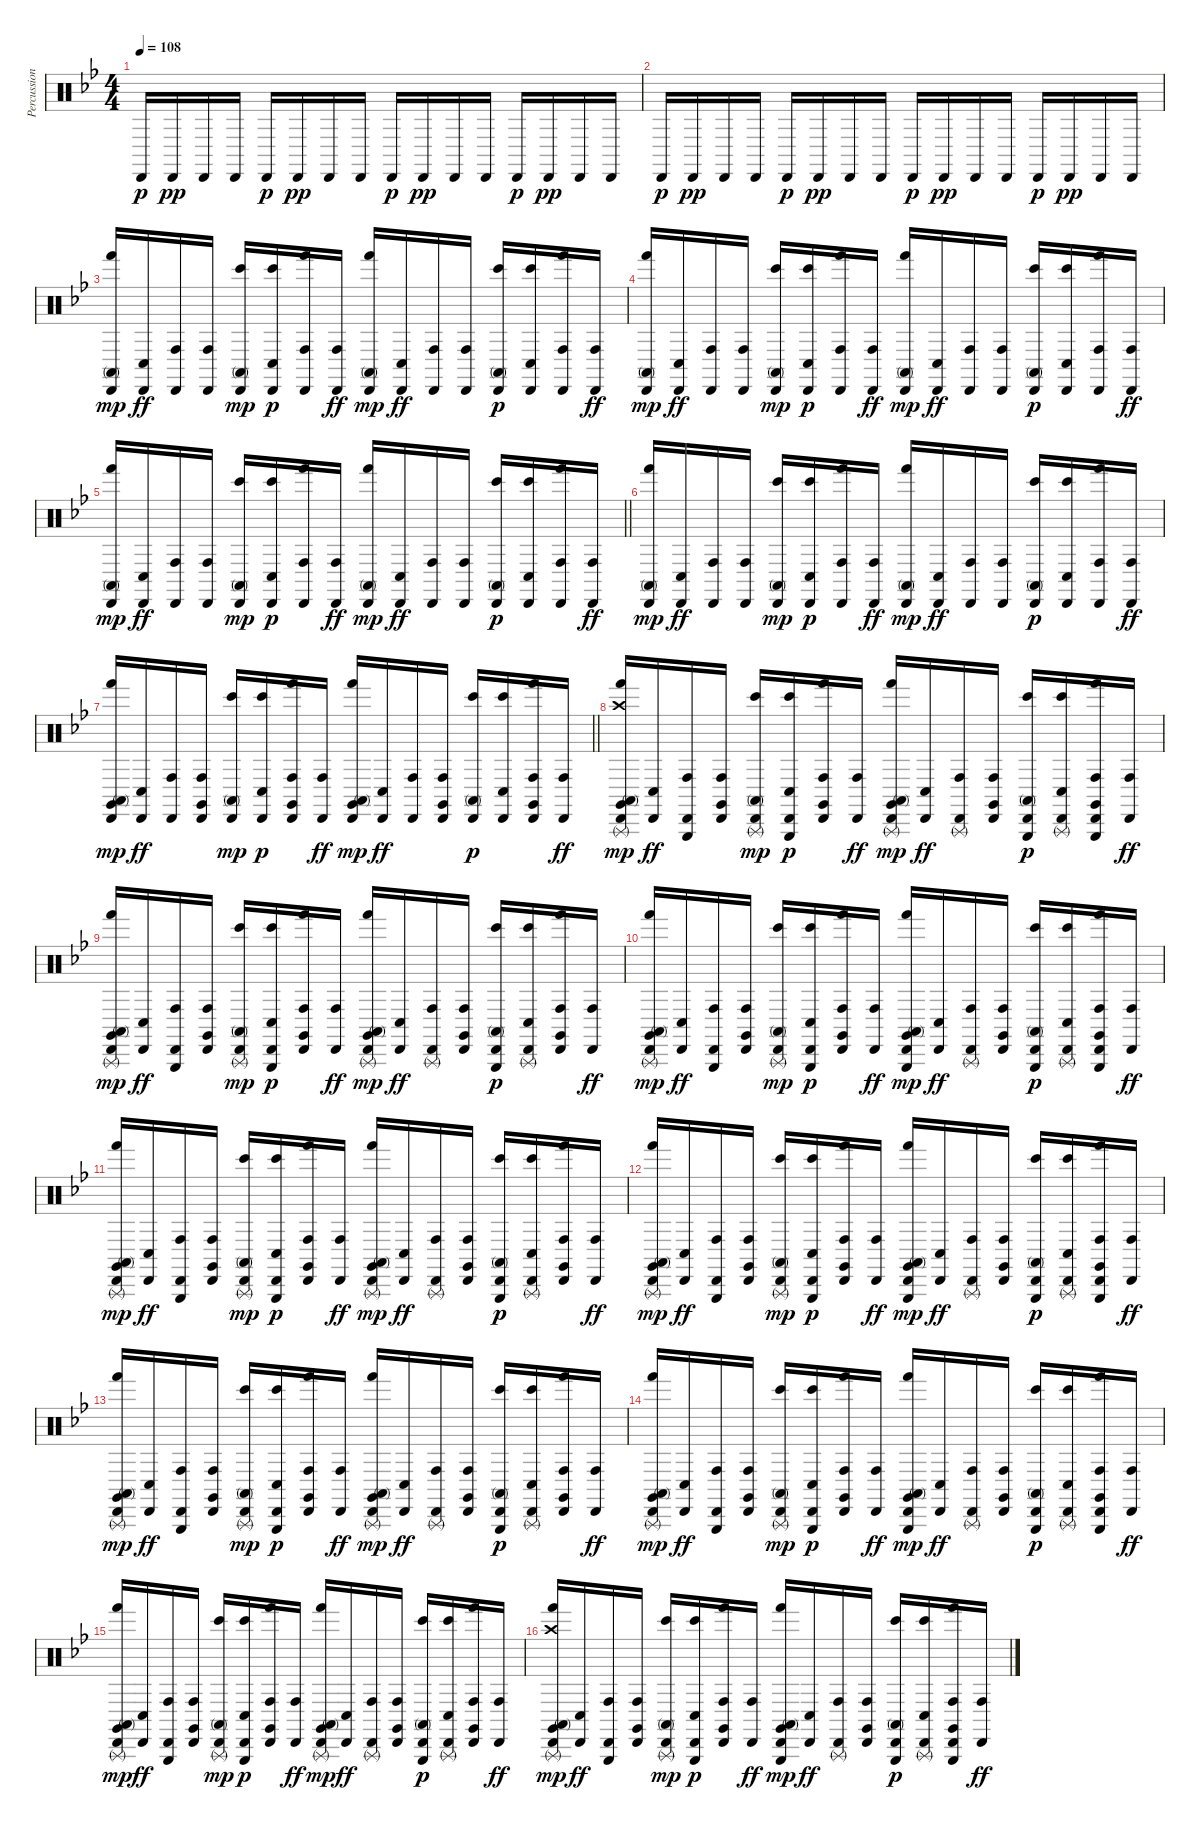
\track ("Percussion" "Percussion") {instrument percussion}
\staff {score}
\articulation defaults
\ts (4 4)
\tempo 108
\clef neutral
\ks gminor "Cabasa (hit)".16{dy p} "Cabasa (hit)".16{dy pp} "Cabasa (hit)".16 "Cabasa (hit)".16 "Cabasa (hit)".16{dy p} "Cabasa (hit)".16{dy pp} "Cabasa (hit)".16 "Cabasa (hit)".16 "Cabasa (hit)".16{dy p} "Cabasa (hit)".16{dy pp} "Cabasa (hit)".16 "Cabasa (hit)".16 "Cabasa (hit)".16{dy p} "Cabasa (hit)".16{dy pp} "Cabasa (hit)".16 "Cabasa (hit)".16
|
"Cabasa (hit)".16{dy p} "Cabasa (hit)".16{dy pp} "Cabasa (hit)".16 "Cabasa (hit)".16 "Cabasa (hit)".16{dy p} "Cabasa (hit)".16{dy pp} "Cabasa (hit)".16 "Cabasa (hit)".16 "Cabasa (hit)".16{dy p} "Cabasa (hit)".16{dy pp} "Cabasa (hit)".16 "Cabasa (hit)".16 "Cabasa (hit)".16{dy p} "Cabasa (hit)".16{dy pp} "Cabasa (hit)".16 "Cabasa (hit)".16 |
("Cabasa (hit)" "Conga high (mute)" "Hand (hit)").16{dy mp} ("Cabasa (hit)" "Conga low (hit)").16{dy ff} ("Cabasa (hit)" "Conga high (hit)").16 ("Cabasa (hit)" "Conga high (hit)").16 ("Cabasa (hit)" "Conga high (mute)" "Bongo High (hit)").16{dy mp} ("Cabasa (hit)" "Conga low (hit)" "Bongo High (hit)").16{dy p} ("Cabasa (hit)" "Conga high (hit)" "Hand (hit)").16 ("Cabasa (hit)" "Conga high (hit)").16{dy ff} ("Cabasa (hit)" "Conga high (mute)" "Hand (hit)").16{dy mp} ("Cabasa (hit)" "Conga low (hit)").16{dy ff} ("Cabasa (hit)" "Conga high (hit)").16 ("Cabasa (hit)" "Conga high (hit)").16 ("Cabasa (hit)" "Conga high (mute)" "Bongo High (hit)").16{dy p} ("Cabasa (hit)" "Conga low (hit)" "Bongo High (hit)").16 ("Cabasa (hit)" "Conga high (hit)" "Hand (hit)").16 ("Cabasa (hit)" "Conga high (hit)").16{dy ff} |
("Cabasa (hit)" "Conga high (mute)" "Hand (hit)").16{dy mp} ("Cabasa (hit)" "Conga low (hit)").16{dy ff} ("Cabasa (hit)" "Conga high (hit)").16 ("Cabasa (hit)" "Conga high (hit)").16 ("Cabasa (hit)" "Conga high (mute)" "Bongo High (hit)").16{dy mp} ("Cabasa (hit)" "Conga low (hit)" "Bongo High (hit)").16{dy p} ("Cabasa (hit)" "Conga high (hit)" "Hand (hit)").16 ("Cabasa (hit)" "Conga high (hit)").16{dy ff} ("Cabasa (hit)" "Conga high (mute)" "Hand (hit)").16{dy mp} ("Cabasa (hit)" "Conga low (hit)").16{dy ff} ("Cabasa (hit)" "Conga high (hit)").16 ("Cabasa (hit)" "Conga high (hit)").16 ("Cabasa (hit)" "Conga high (mute)" "Bongo High (hit)").16{dy p} ("Cabasa (hit)" "Conga low (hit)" "Bongo High (hit)").16 ("Cabasa (hit)" "Conga high (hit)" "Hand (hit)").16 ("Cabasa (hit)" "Conga high (hit)").16{dy ff} |
\barLineRight lightlight
("Cabasa (hit)" "Conga high (mute)" "Hand (hit)").16{dy mp} ("Cabasa (hit)" "Conga low (hit)").16{dy ff} ("Cabasa (hit)" "Conga high (hit)").16 ("Cabasa (hit)" "Conga high (hit)").16 ("Cabasa (hit)" "Conga high (mute)" "Bongo High (hit)").16{dy mp} ("Cabasa (hit)" "Conga low (hit)" "Bongo High (hit)").16{dy p} ("Cabasa (hit)" "Conga high (hit)" "Hand (hit)").16 ("Cabasa (hit)" "Conga high (hit)").16{dy ff} ("Cabasa (hit)" "Conga high (mute)" "Hand (hit)").16{dy mp} ("Cabasa (hit)" "Conga low (hit)").16{dy ff} ("Cabasa (hit)" "Conga high (hit)").16 ("Cabasa (hit)" "Conga high (hit)").16 ("Cabasa (hit)" "Conga high (mute)" "Bongo High (hit)").16{dy p} ("Cabasa (hit)" "Conga low (hit)" "Bongo High (hit)").16 ("Cabasa (hit)" "Conga high (hit)" "Hand (hit)").16 ("Cabasa (hit)" "Conga high (hit)").16{dy ff} |
("Cabasa (hit)" "Conga high (mute)" "Hand (hit)").16{dy mp} ("Cabasa (hit)" "Conga low (hit)").16{dy ff} ("Cabasa (hit)" "Conga high (hit)").16 ("Cabasa (hit)" "Conga high (hit)").16 ("Cabasa (hit)" "Conga high (mute)" "Bongo High (hit)").16{dy mp} ("Cabasa (hit)" "Conga low (hit)" "Bongo High (hit)").16{dy p} ("Cabasa (hit)" "Conga high (hit)" "Hand (hit)").16 ("Cabasa (hit)" "Conga high (hit)").16{dy ff} ("Cabasa (hit)" "Conga high (mute)" "Hand (hit)").16{dy mp} ("Cabasa (hit)" "Conga low (hit)").16{dy ff} ("Cabasa (hit)" "Conga high (hit)").16 ("Cabasa (hit)" "Conga high (hit)").16 ("Cabasa (hit)" "Conga high (mute)" "Bongo High (hit)").16{dy p} ("Cabasa (hit)" "Conga low (hit)" "Bongo High (hit)").16 ("Cabasa (hit)" "Conga high (hit)" "Hand (hit)").16 ("Cabasa (hit)" "Conga high (hit)").16{dy ff} |
\barLineRight lightlight
("Cabasa (hit)" "Claves (hit)" "Conga high (mute)" "Hand (hit)").16{dy mp} ("Cabasa (hit)" "Conga low (hit)").16{dy ff} ("Cabasa (hit)" "Conga high (hit)").16 ("Cabasa (hit)" "Claves (hit)" "Conga high (hit)").16 ("Cabasa (hit)" "Conga high (mute)" "Bongo High (hit)").16{dy mp} ("Cabasa (hit)" "Conga low (hit)" "Bongo High (hit)").16{dy p} ("Cabasa (hit)" "Claves (hit)" "Conga high (hit)" "Hand (hit)").16 ("Cabasa (hit)" "Conga high (hit)").16{dy ff} ("Cabasa (hit)" "Claves (hit)" "Conga high (mute)" "Hand (hit)").16{dy mp} ("Cabasa (hit)" "Conga low (hit)").16{dy ff} ("Cabasa (hit)" "Conga high (hit)").16 ("Cabasa (hit)" "Claves (hit)" "Conga high (hit)").16 ("Cabasa (hit)" "Conga high (mute)" "Bongo High (hit)").16{dy p} ("Cabasa (hit)" "Conga low (hit)" "Bongo High (hit)").16 ("Cabasa (hit)" "Claves (hit)" "Conga high (hit)" "Hand (hit)").16 ("Cabasa (hit)" "Conga high (hit)").16{dy ff} |
\section ("" "")
("Crash high (hit)" "Cabasa (hit)" "Triangle (rnute)" "Claves (hit)" "Conga high (mute)" "Hand (hit)").16{dy mp} ("Cabasa (hit)" "Conga low (hit)").16{dy ff} ("Cabasa (hit)" "Triangle (hit)" "Conga high (hit)").16 ("Cabasa (hit)" "Claves (hit)" "Conga high (hit)").16 ("Cabasa (hit)" "Triangle (rnute)" "Conga high (mute)" "Bongo High (hit)").16{dy mp} ("Cabasa (hit)" "Triangle (hit)" "Conga low (hit)" "Bongo High (hit)").16{dy p} ("Cabasa (hit)" "Claves (hit)" "Conga high (hit)" "Hand (hit)").16 ("Cabasa (hit)" "Conga high (hit)").16{dy ff} ("Cabasa (hit)" "Triangle (rnute)" "Claves (hit)" "Conga high (mute)" "Hand (hit)").16{dy mp} ("Cabasa (hit)" "Conga low (hit)").16{dy ff} ("Cabasa (hit)" "Triangle (rnute)" "Conga high (hit)").16 ("Cabasa (hit)" "Claves (hit)" "Conga high (hit)").16 ("Cabasa (hit)" "Triangle (hit)" "Conga high (mute)" "Bongo High (hit)").16{dy p} ("Cabasa (hit)" "Triangle (rnute)" "Conga low (hit)" "Bongo High (hit)").16 ("Cabasa (hit)" "Triangle (hit)" "Claves (hit)" "Conga high (hit)" "Hand (hit)").16 ("Cabasa (hit)" "Conga high (hit)").16{dy ff} |
("Cabasa (hit)" "Triangle (rnute)" "Claves (hit)" "Conga high (mute)" "Hand (hit)").16{dy mp} ("Cabasa (hit)" "Conga low (hit)").16{dy ff} ("Cabasa (hit)" "Triangle (hit)" "Conga high (hit)").16 ("Cabasa (hit)" "Claves (hit)" "Conga high (hit)").16 ("Cabasa (hit)" "Triangle (rnute)" "Conga high (mute)" "Bongo High (hit)").16{dy mp} ("Cabasa (hit)" "Triangle (hit)" "Conga low (hit)" "Bongo High (hit)").16{dy p} ("Cabasa (hit)" "Claves (hit)" "Conga high (hit)" "Hand (hit)").16 ("Cabasa (hit)" "Conga high (hit)").16{dy ff} ("Cabasa (hit)" "Triangle (rnute)" "Claves (hit)" "Conga high (mute)" "Hand (hit)").16{dy mp} ("Cabasa (hit)" "Conga low (hit)").16{dy ff} ("Cabasa (hit)" "Triangle (rnute)" "Conga high (hit)").16 ("Cabasa (hit)" "Claves (hit)" "Conga high (hit)").16 ("Cabasa (hit)" "Triangle (hit)" "Conga high (mute)" "Bongo High (hit)").16{dy p} ("Cabasa (hit)" "Triangle (rnute)" "Conga low (hit)" "Bongo High (hit)").16 ("Cabasa (hit)" "Claves (hit)" "Conga high (hit)" "Hand (hit)").16 ("Cabasa (hit)" "Conga high (hit)").16{dy ff} |
("Cabasa (hit)" "Claves (hit)" "Triangle (rnute)" "Conga high (mute)" "Hand (hit)").16{dy mp} ("Cabasa (hit)" "Conga low (hit)").16{dy ff} ("Cabasa (hit)" "Triangle (hit)" "Conga high (hit)").16 ("Cabasa (hit)" "Claves (hit)" "Conga high (hit)").16 ("Cabasa (hit)" "Triangle (rnute)" "Conga high (mute)" "Bongo High (hit)").16{dy mp} ("Cabasa (hit)" "Triangle (hit)" "Conga low (hit)" "Bongo High (hit)").16{dy p} ("Cabasa (hit)" "Claves (hit)" "Conga high (hit)" "Hand (hit)").16 ("Cabasa (hit)" "Conga high (hit)").16{dy ff} ("Cabasa (hit)" "Claves (hit)" "Triangle (hit)" "Conga high (mute)" "Hand (hit)").16{dy mp} ("Cabasa (hit)" "Conga low (hit)").16{dy ff} ("Cabasa (hit)" "Triangle (rnute)" "Conga high (hit)").16 ("Cabasa (hit)" "Claves (hit)" "Conga high (hit)").16 ("Cabasa (hit)" "Triangle (hit)" "Conga high (mute)" "Bongo High (hit)").16{dy p} ("Cabasa (hit)" "Triangle (rnute)" "Conga low (hit)" "Bongo High (hit)").16 ("Cabasa (hit)" "Claves (hit)" "Triangle (hit)" "Conga high (hit)" "Hand (hit)").16 ("Cabasa (hit)" "Conga high (hit)").16{dy ff} |
("Cabasa (hit)" "Triangle (rnute)" "Claves (hit)" "Conga high (mute)" "Hand (hit)").16{dy mp} ("Cabasa (hit)" "Conga low (hit)").16{dy ff} ("Cabasa (hit)" "Triangle (hit)" "Conga high (hit)").16 ("Cabasa (hit)" "Claves (hit)" "Conga high (hit)").16 ("Cabasa (hit)" "Triangle (rnute)" "Conga high (mute)" "Bongo High (hit)").16{dy mp} ("Cabasa (hit)" "Triangle (hit)" "Conga low (hit)" "Bongo High (hit)").16{dy p} ("Cabasa (hit)" "Claves (hit)" "Conga high (hit)" "Hand (hit)").16 ("Cabasa (hit)" "Conga high (hit)").16{dy ff} ("Cabasa (hit)" "Triangle (rnute)" "Claves (hit)" "Conga high (mute)" "Hand (hit)").16{dy mp} ("Cabasa (hit)" "Conga low (hit)").16{dy ff} ("Cabasa (hit)" "Triangle (rnute)" "Conga high (hit)").16 ("Cabasa (hit)" "Claves (hit)" "Conga high (hit)").16 ("Cabasa (hit)" "Triangle (hit)" "Conga high (mute)" "Bongo High (hit)").16{dy p} ("Cabasa (hit)" "Triangle (rnute)" "Conga low (hit)" "Bongo High (hit)").16 ("Cabasa (hit)" "Claves (hit)" "Conga high (hit)" "Hand (hit)").16 ("Cabasa (hit)" "Conga high (hit)").16{dy ff} |
("Cabasa (hit)" "Claves (hit)" "Triangle (rnute)" "Conga high (mute)" "Hand (hit)").16{dy mp} ("Cabasa (hit)" "Conga low (hit)").16{dy ff} ("Cabasa (hit)" "Triangle (hit)" "Conga high (hit)").16 ("Cabasa (hit)" "Claves (hit)" "Conga high (hit)").16 ("Cabasa (hit)" "Triangle (rnute)" "Conga high (mute)" "Bongo High (hit)").16{dy mp} ("Cabasa (hit)" "Triangle (hit)" "Conga low (hit)" "Bongo High (hit)").16{dy p} ("Cabasa (hit)" "Claves (hit)" "Conga high (hit)" "Hand (hit)").16 ("Cabasa (hit)" "Conga high (hit)").16{dy ff} ("Cabasa (hit)" "Claves (hit)" "Triangle (hit)" "Conga high (mute)" "Hand (hit)").16{dy mp} ("Cabasa (hit)" "Conga low (hit)").16{dy ff} ("Cabasa (hit)" "Triangle (rnute)" "Conga high (hit)").16 ("Cabasa (hit)" "Claves (hit)" "Conga high (hit)").16 ("Cabasa (hit)" "Triangle (hit)" "Conga high (mute)" "Bongo High (hit)").16{dy p} ("Cabasa (hit)" "Triangle (rnute)" "Conga low (hit)" "Bongo High (hit)").16 ("Cabasa (hit)" "Claves (hit)" "Triangle (hit)" "Conga high (hit)" "Hand (hit)").16 ("Cabasa (hit)" "Conga high (hit)").16{dy ff} |
("Cabasa (hit)" "Triangle (rnute)" "Claves (hit)" "Conga high (mute)" "Hand (hit)").16{dy mp} ("Cabasa (hit)" "Conga low (hit)").16{dy ff} ("Cabasa (hit)" "Triangle (hit)" "Conga high (hit)").16 ("Cabasa (hit)" "Claves (hit)" "Conga high (hit)").16 ("Cabasa (hit)" "Triangle (rnute)" "Conga high (mute)" "Bongo High (hit)").16{dy mp} ("Cabasa (hit)" "Triangle (hit)" "Conga low (hit)" "Bongo High (hit)").16{dy p} ("Cabasa (hit)" "Claves (hit)" "Conga high (hit)" "Hand (hit)").16 ("Cabasa (hit)" "Conga high (hit)").16{dy ff} ("Cabasa (hit)" "Triangle (rnute)" "Claves (hit)" "Conga high (mute)" "Hand (hit)").16{dy mp} ("Cabasa (hit)" "Conga low (hit)").16{dy ff} ("Cabasa (hit)" "Triangle (rnute)" "Conga high (hit)").16 ("Cabasa (hit)" "Claves (hit)" "Conga high (hit)").16 ("Cabasa (hit)" "Triangle (hit)" "Conga high (mute)" "Bongo High (hit)").16{dy p} ("Cabasa (hit)" "Triangle (rnute)" "Conga low (hit)" "Bongo High (hit)").16 ("Cabasa (hit)" "Claves (hit)" "Conga high (hit)" "Hand (hit)").16 ("Cabasa (hit)" "Conga high (hit)").16{dy ff} |
("Cabasa (hit)" "Claves (hit)" "Triangle (rnute)" "Conga high (mute)" "Hand (hit)").16{dy mp} ("Cabasa (hit)" "Conga low (hit)").16{dy ff} ("Cabasa (hit)" "Triangle (hit)" "Conga high (hit)").16 ("Cabasa (hit)" "Claves (hit)" "Conga high (hit)").16 ("Cabasa (hit)" "Triangle (rnute)" "Conga high (mute)" "Bongo High (hit)").16{dy mp} ("Cabasa (hit)" "Triangle (hit)" "Conga low (hit)" "Bongo High (hit)").16{dy p} ("Cabasa (hit)" "Claves (hit)" "Conga high (hit)" "Hand (hit)").16 ("Cabasa (hit)" "Conga high (hit)").16{dy ff} ("Cabasa (hit)" "Claves (hit)" "Triangle (hit)" "Conga high (mute)" "Hand (hit)").16{dy mp} ("Cabasa (hit)" "Conga low (hit)").16{dy ff} ("Cabasa (hit)" "Triangle (rnute)" "Conga high (hit)").16 ("Cabasa (hit)" "Claves (hit)" "Conga high (hit)").16 ("Cabasa (hit)" "Triangle (hit)" "Conga high (mute)" "Bongo High (hit)").16{dy p} ("Cabasa (hit)" "Triangle (rnute)" "Conga low (hit)" "Bongo High (hit)").16 ("Cabasa (hit)" "Claves (hit)" "Triangle (hit)" "Conga high (hit)" "Hand (hit)").16 ("Cabasa (hit)" "Conga high (hit)").16{dy ff} |
("Cabasa (hit)" "Triangle (rnute)" "Claves (hit)" "Conga high (mute)" "Hand (hit)").16{dy mp} ("Cabasa (hit)" "Conga low (hit)").16{dy ff} ("Cabasa (hit)" "Triangle (hit)" "Conga high (hit)").16 ("Cabasa (hit)" "Claves (hit)" "Conga high (hit)").16 ("Cabasa (hit)" "Triangle (rnute)" "Conga high (mute)" "Bongo High (hit)").16{dy mp} ("Cabasa (hit)" "Triangle (hit)" "Conga low (hit)" "Bongo High (hit)").16{dy p} ("Cabasa (hit)" "Claves (hit)" "Conga high (hit)" "Hand (hit)").16 ("Cabasa (hit)" "Conga high (hit)").16{dy ff} ("Cabasa (hit)" "Triangle (rnute)" "Claves (hit)" "Conga high (mute)" "Hand (hit)").16{dy mp} ("Cabasa (hit)" "Conga low (hit)").16{dy ff} ("Cabasa (hit)" "Triangle (rnute)" "Conga high (hit)").16 ("Cabasa (hit)" "Claves (hit)" "Conga high (hit)").16 ("Cabasa (hit)" "Triangle (hit)" "Conga high (mute)" "Bongo High (hit)").16{dy p} ("Cabasa (hit)" "Triangle (rnute)" "Conga low (hit)" "Bongo High (hit)").16 ("Cabasa (hit)" "Claves (hit)" "Conga high (hit)" "Hand (hit)").16 ("Cabasa (hit)" "Conga high (hit)").16{dy ff} |
("Crash high (hit)" "Cabasa (hit)" "Claves (hit)" "Triangle (rnute)" "Conga high (mute)" "Hand (hit)").16{dy mp} ("Cabasa (hit)" "Conga low (hit)").16{dy ff} ("Cabasa (hit)" "Triangle (hit)" "Conga high (hit)").16 ("Cabasa (hit)" "Claves (hit)" "Conga high (hit)").16 ("Cabasa (hit)" "Triangle (rnute)" "Conga high (mute)" "Bongo High (hit)").16{dy mp} ("Cabasa (hit)" "Triangle (hit)" "Conga low (hit)" "Bongo High (hit)").16{dy p} ("Cabasa (hit)" "Claves (hit)" "Conga high (hit)" "Hand (hit)").16 ("Cabasa (hit)" "Conga high (hit)").16{dy ff} ("Cabasa (hit)" "Claves (hit)" "Triangle (hit)" "Conga high (mute)" "Hand (hit)").16{dy mp} ("Cabasa (hit)" "Conga low (hit)").16{dy ff} ("Cabasa (hit)" "Triangle (rnute)" "Conga high (hit)").16 ("Cabasa (hit)" "Claves (hit)" "Conga high (hit)").16 ("Cabasa (hit)" "Triangle (hit)" "Conga high (mute)" "Bongo High (hit)").16{dy p} ("Cabasa (hit)" "Triangle (rnute)" "Conga low (hit)" "Bongo High (hit)").16 ("Cabasa (hit)" "Claves (hit)" "Triangle (hit)" "Conga high (hit)" "Hand (hit)").16 ("Cabasa (hit)" "Conga high (hit)").16{dy ff}
